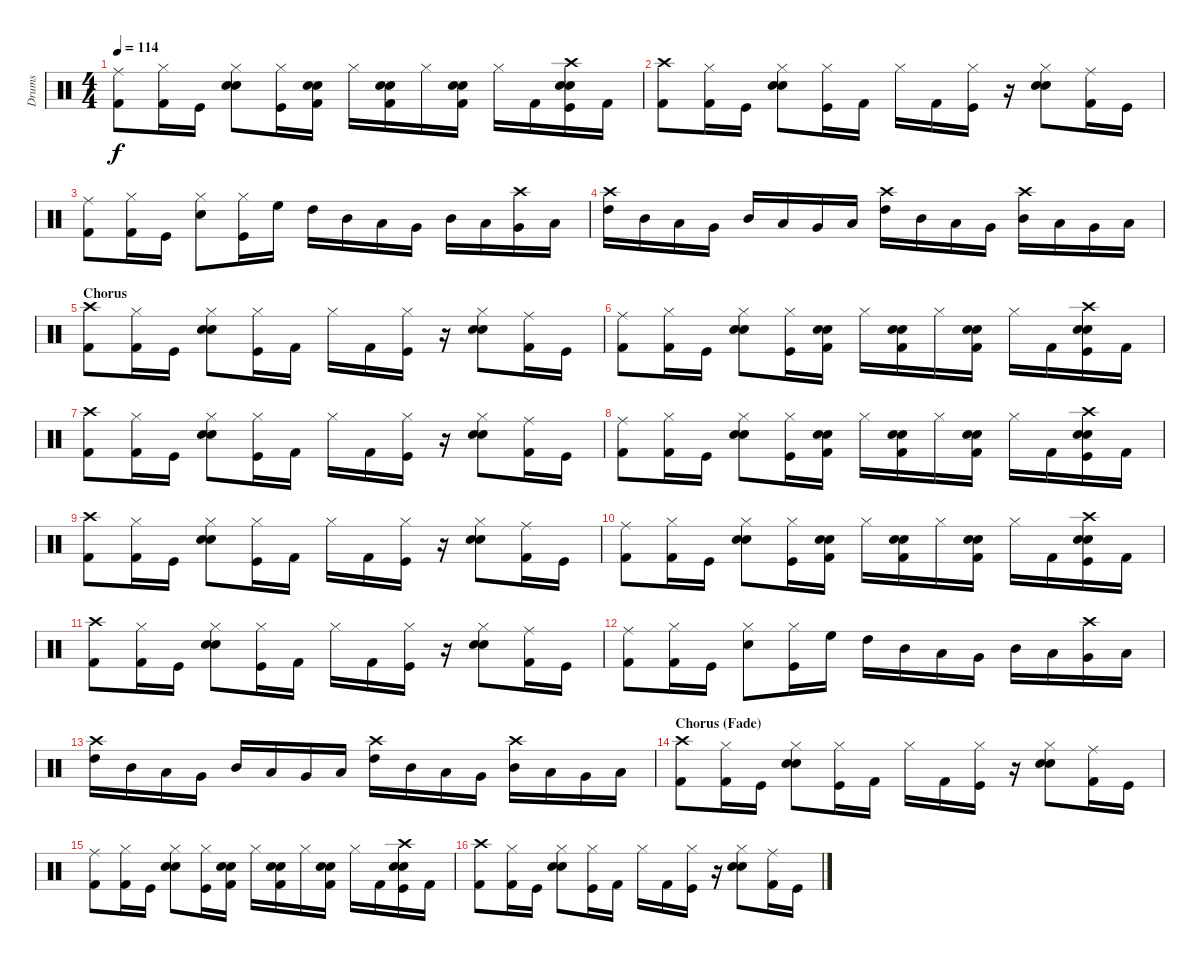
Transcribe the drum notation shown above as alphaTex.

\track ("Drums" "Drums") {instrument percussion}
\staff {score}
\articulation defaults
\ts (4 4)
\tempo 114
\clef neutral
\ks c
("Ride (middle)" "Kick (hit) 2").8{dy f} ("Hi-Hat (closed)" "Kick (hit) 2").16 "Kick (hit)".16 ("Hi-Hat (closed)" "Electric Snare (hit)" "Snare (hit) 2").8 ("Hi-Hat (closed)" "Kick (hit)").16 ("Electric Snare (hit)" "Snare (hit) 2" "Kick (hit) 2").16 "Hi-Hat (closed)".16 ("Electric Snare (hit)" "Snare (hit) 2" "Kick (hit) 2").16 "Hi-Hat (closed)".16 ("Electric Snare (hit)" "Snare (hit) 2" "Kick (hit) 2").16 "Hi-Hat (closed)".16 "Kick (hit) 2".16 ("Crash high (hit)" "Electric Snare (hit)" "Snare (hit) 2" "Kick (hit)").16 "Kick (hit) 2".16 |
("Crash high (hit)" "Kick (hit) 2").8 ("Hi-Hat (closed)" "Kick (hit) 2").16 "Kick (hit)".16 ("Hi-Hat (closed)" "Electric Snare (hit)" "Snare (hit) 2").8 ("Hi-Hat (closed)" "Kick (hit)").16 "Kick (hit) 2".16 "Hi-Hat (closed)".16 "Kick (hit) 2".16 ("Hi-Hat (closed)" "Kick (hit)").16 r.16 ("Hi-Hat (closed)" "Electric Snare (hit)" "Snare (hit) 2").8 ("Ride (middle)" "Kick (hit) 2").16 "Kick (hit)".16 |
("Ride (middle)" "Kick (hit) 2").8 ("Hi-Hat (closed)" "Kick (hit) 2").16 "Kick (hit)".16 ("Hi-Hat (closed)" "Snare (hit) 2").8 ("Hi-Hat (closed)" "Kick (hit)").16 "High Floor Tom (hit)".16 "High Tom (hit)".16 "Mid Tom (hit)".16 "Low Tom (hit)".16 "Very Low Tom (hit)".16 "Mid Tom (hit)".16 "Low Tom (hit)".16 ("Crash high (hit)" "Very Low Tom (hit)").16 "Low Floor Tom (hit)".16 |
("Crash high (hit)" "High Tom (hit)").16 "Mid Tom (hit)".16 "Low Tom (hit)".16 "Very Low Tom (hit)".16 "Mid Tom (hit)".16 "Low Tom (hit)".16 "Very Low Tom (hit)".16 "Low Floor Tom (hit)".16 ("Crash high (hit)" "High Tom (hit)").16 "Mid Tom (hit)".16 "Low Tom (hit)".16 "Very Low Tom (hit)".16 ("Crash high (hit)" "Mid Tom (hit)").16 "Low Tom (hit)".16 "Very Low Tom (hit)".16 "Low Floor Tom (hit)".16 |
\section ("" "Chorus")
("Crash high (hit)" "Kick (hit) 2").8 ("Hi-Hat (closed)" "Kick (hit) 2").16 "Kick (hit)".16 ("Hi-Hat (closed)" "Electric Snare (hit)" "Snare (hit) 2").8 ("Hi-Hat (closed)" "Kick (hit)").16 "Kick (hit) 2".16 "Hi-Hat (closed)".16 "Kick (hit) 2".16 ("Hi-Hat (closed)" "Kick (hit)").16 r.16 ("Hi-Hat (closed)" "Electric Snare (hit)" "Snare (hit) 2").8 ("Ride (middle)" "Kick (hit) 2").16 "Kick (hit)".16 |
("Ride (middle)" "Kick (hit) 2").8 ("Hi-Hat (closed)" "Kick (hit) 2").16 "Kick (hit)".16 ("Hi-Hat (closed)" "Electric Snare (hit)" "Snare (hit) 2").8 ("Hi-Hat (closed)" "Kick (hit)").16 ("Electric Snare (hit)" "Snare (hit) 2" "Kick (hit) 2").16 "Hi-Hat (closed)".16 ("Electric Snare (hit)" "Snare (hit) 2" "Kick (hit) 2").16 "Hi-Hat (closed)".16 ("Electric Snare (hit)" "Snare (hit) 2" "Kick (hit) 2").16 "Hi-Hat (closed)".16 "Kick (hit) 2".16 ("Crash high (hit)" "Electric Snare (hit)" "Snare (hit) 2" "Kick (hit)").16 "Kick (hit) 2".16 |
("Crash high (hit)" "Kick (hit) 2").8 ("Hi-Hat (closed)" "Kick (hit) 2").16 "Kick (hit)".16 ("Hi-Hat (closed)" "Electric Snare (hit)" "Snare (hit) 2").8 ("Hi-Hat (closed)" "Kick (hit)").16 "Kick (hit) 2".16 "Hi-Hat (closed)".16 "Kick (hit) 2".16 ("Hi-Hat (closed)" "Kick (hit)").16 r.16 ("Hi-Hat (closed)" "Electric Snare (hit)" "Snare (hit) 2").8 ("Ride (middle)" "Kick (hit) 2").16 "Kick (hit)".16 |
("Ride (middle)" "Kick (hit) 2").8 ("Hi-Hat (closed)" "Kick (hit) 2").16 "Kick (hit)".16 ("Hi-Hat (closed)" "Electric Snare (hit)" "Snare (hit) 2").8 ("Hi-Hat (closed)" "Kick (hit)").16 ("Electric Snare (hit)" "Snare (hit) 2" "Kick (hit) 2").16 "Hi-Hat (closed)".16 ("Electric Snare (hit)" "Snare (hit) 2" "Kick (hit) 2").16 "Hi-Hat (closed)".16 ("Electric Snare (hit)" "Snare (hit) 2" "Kick (hit) 2").16 "Hi-Hat (closed)".16 "Kick (hit) 2".16 ("Crash high (hit)" "Electric Snare (hit)" "Snare (hit) 2" "Kick (hit)").16 "Kick (hit) 2".16 |
("Crash high (hit)" "Kick (hit) 2").8 ("Hi-Hat (closed)" "Kick (hit) 2").16 "Kick (hit)".16 ("Hi-Hat (closed)" "Electric Snare (hit)" "Snare (hit) 2").8 ("Hi-Hat (closed)" "Kick (hit)").16 "Kick (hit) 2".16 "Hi-Hat (closed)".16 "Kick (hit) 2".16 ("Hi-Hat (closed)" "Kick (hit)").16 r.16 ("Hi-Hat (closed)" "Electric Snare (hit)" "Snare (hit) 2").8 ("Ride (middle)" "Kick (hit) 2").16 "Kick (hit)".16 |
("Ride (middle)" "Kick (hit) 2").8 ("Hi-Hat (closed)" "Kick (hit) 2").16 "Kick (hit)".16 ("Hi-Hat (closed)" "Electric Snare (hit)" "Snare (hit) 2").8 ("Hi-Hat (closed)" "Kick (hit)").16 ("Electric Snare (hit)" "Snare (hit) 2" "Kick (hit) 2").16 "Hi-Hat (closed)".16 ("Electric Snare (hit)" "Snare (hit) 2" "Kick (hit) 2").16 "Hi-Hat (closed)".16 ("Electric Snare (hit)" "Snare (hit) 2" "Kick (hit) 2").16 "Hi-Hat (closed)".16 "Kick (hit) 2".16 ("Crash high (hit)" "Electric Snare (hit)" "Snare (hit) 2" "Kick (hit)").16 "Kick (hit) 2".16 |
("Crash high (hit)" "Kick (hit) 2").8 ("Hi-Hat (closed)" "Kick (hit) 2").16 "Kick (hit)".16 ("Hi-Hat (closed)" "Electric Snare (hit)" "Snare (hit) 2").8 ("Hi-Hat (closed)" "Kick (hit)").16 "Kick (hit) 2".16 "Hi-Hat (closed)".16 "Kick (hit) 2".16 ("Hi-Hat (closed)" "Kick (hit)").16 r.16 ("Hi-Hat (closed)" "Electric Snare (hit)" "Snare (hit) 2").8 ("Ride (middle)" "Kick (hit) 2").16 "Kick (hit)".16 |
("Ride (middle)" "Kick (hit) 2").8 ("Hi-Hat (closed)" "Kick (hit) 2").16 "Kick (hit)".16 ("Hi-Hat (closed)" "Snare (hit) 2").8 ("Hi-Hat (closed)" "Kick (hit)").16 "High Floor Tom (hit)".16 "High Tom (hit)".16 "Mid Tom (hit)".16 "Low Tom (hit)".16 "Very Low Tom (hit)".16 "Mid Tom (hit)".16 "Low Tom (hit)".16 ("Crash high (hit)" "Very Low Tom (hit)").16 "Low Floor Tom (hit)".16 |
("Crash high (hit)" "High Tom (hit)").16 "Mid Tom (hit)".16 "Low Tom (hit)".16 "Very Low Tom (hit)".16 "Mid Tom (hit)".16 "Low Tom (hit)".16 "Very Low Tom (hit)".16 "Low Floor Tom (hit)".16 ("Crash high (hit)" "High Tom (hit)").16 "Mid Tom (hit)".16 "Low Tom (hit)".16 "Very Low Tom (hit)".16 ("Crash high (hit)" "Mid Tom (hit)").16 "Low Tom (hit)".16 "Very Low Tom (hit)".16 "Low Floor Tom (hit)".16 |
\section ("" "Chorus (Fade)")
("Crash high (hit)" "Kick (hit) 2").8 ("Hi-Hat (closed)" "Kick (hit) 2").16 "Kick (hit)".16 ("Hi-Hat (closed)" "Electric Snare (hit)" "Snare (hit) 2").8 ("Hi-Hat (closed)" "Kick (hit)").16 "Kick (hit) 2".16 "Hi-Hat (closed)".16 "Kick (hit) 2".16 ("Hi-Hat (closed)" "Kick (hit)").16 r.16 ("Hi-Hat (closed)" "Electric Snare (hit)" "Snare (hit) 2").8 ("Ride (middle)" "Kick (hit) 2").16 "Kick (hit)".16 |
("Ride (middle)" "Kick (hit) 2").8 ("Hi-Hat (closed)" "Kick (hit) 2").16 "Kick (hit)".16 ("Hi-Hat (closed)" "Electric Snare (hit)" "Snare (hit) 2").8 ("Hi-Hat (closed)" "Kick (hit)").16 ("Electric Snare (hit)" "Snare (hit) 2" "Kick (hit) 2").16 "Hi-Hat (closed)".16 ("Electric Snare (hit)" "Snare (hit) 2" "Kick (hit) 2").16 "Hi-Hat (closed)".16 ("Electric Snare (hit)" "Snare (hit) 2" "Kick (hit) 2").16 "Hi-Hat (closed)".16 "Kick (hit) 2".16 ("Crash high (hit)" "Electric Snare (hit)" "Snare (hit) 2" "Kick (hit)").16 "Kick (hit) 2".16 |
("Crash high (hit)" "Kick (hit) 2").8 ("Hi-Hat (closed)" "Kick (hit) 2").16 "Kick (hit)".16 ("Hi-Hat (closed)" "Electric Snare (hit)" "Snare (hit) 2").8 ("Hi-Hat (closed)" "Kick (hit)").16 "Kick (hit) 2".16 "Hi-Hat (closed)".16 "Kick (hit) 2".16 ("Hi-Hat (closed)" "Kick (hit)").16 r.16 ("Hi-Hat (closed)" "Electric Snare (hit)" "Snare (hit) 2").8 ("Ride (middle)" "Kick (hit) 2").16 "Kick (hit)".16
